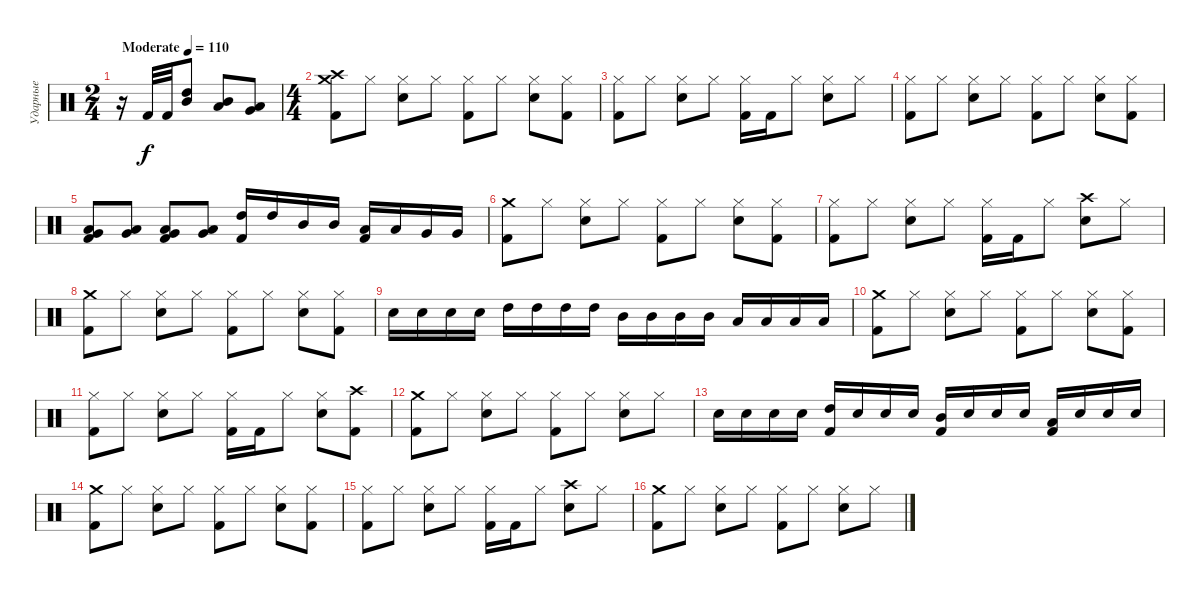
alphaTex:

\track ("Ударные" "Ударные") {instrument percussion}
\staff {score}
\articulation defaults
\ts (2 4)
\tempo (110 "Moderate")
\clef neutral
\ks c
r.16{dy f} "Kick (hit) 2".32 "Kick (hit) 2".32 ("High Tom (hit)" "Mid Tom (hit)").8 ("Mid Tom (hit)" "Low Tom (hit)").8 ("Low Tom (hit)" "Very Low Tom (hit)").8 |
\ts (4 4)
("Crash medium (hit)" "Crash high (hit)" "Kick (hit) 2").8 "Hi-Hat (closed)".8 ("Hi-Hat (closed)" "Electric Snare (hit)").8 "Hi-Hat (closed)".8 ("Hi-Hat (closed)" "Kick (hit) 2").8 "Hi-Hat (closed)".8 ("Hi-Hat (closed)" "Electric Snare (hit)").8 ("Hi-Hat (closed)" "Kick (hit) 2").8 |
("Hi-Hat (closed)" "Kick (hit) 2").8 "Hi-Hat (closed)".8 ("Hi-Hat (closed)" "Electric Snare (hit)").8 "Hi-Hat (closed)".8 ("Hi-Hat (closed)" "Kick (hit) 2").16 "Kick (hit) 2".16 "Hi-Hat (closed)".8 ("Hi-Hat (closed)" "Electric Snare (hit)").8 "Hi-Hat (closed)".8 |
("Hi-Hat (closed)" "Kick (hit) 2").8 "Hi-Hat (closed)".8 ("Hi-Hat (closed)" "Electric Snare (hit)").8 "Hi-Hat (closed)".8 ("Hi-Hat (closed)" "Kick (hit) 2").8 "Hi-Hat (closed)".8 ("Hi-Hat (closed)" "Electric Snare (hit)").8 ("Hi-Hat (closed)" "Kick (hit) 2").8 |
("Very Low Tom (hit)" "Low Floor Tom (hit)" "Kick (hit) 2").8 ("Very Low Tom (hit)" "Low Floor Tom (hit)").8 ("Very Low Tom (hit)" "Low Floor Tom (hit)" "Kick (hit) 2").8 ("Very Low Tom (hit)" "Low Floor Tom (hit)").8 ("High Tom (hit)" "Kick (hit) 2").16 "High Tom (hit)".16 "Mid Tom (hit)".16 "Mid Tom (hit)".16 ("Low Tom (hit)" "Kick (hit) 2").16 "Low Tom (hit)".16 "Very Low Tom (hit)".16 "Very Low Tom (hit)".16 |
("Crash medium (hit)" "Kick (hit) 2").8 "Hi-Hat (closed)".8 ("Hi-Hat (closed)" "Electric Snare (hit)").8 "Hi-Hat (closed)".8 ("Hi-Hat (closed)" "Kick (hit) 2").8 "Hi-Hat (closed)".8 ("Hi-Hat (closed)" "Electric Snare (hit)").8 ("Hi-Hat (closed)" "Kick (hit) 2").8 |
("Hi-Hat (closed)" "Kick (hit) 2").8 "Hi-Hat (closed)".8 ("Hi-Hat (closed)" "Electric Snare (hit)").8 "Hi-Hat (closed)".8 ("Hi-Hat (closed)" "Kick (hit) 2").16 "Kick (hit) 2".16 "Hi-Hat (closed)".8 ("Crash high (hit)" "Electric Snare (hit)").8 "Hi-Hat (closed)".8 |
("Crash medium (hit)" "Kick (hit) 2").8 "Hi-Hat (closed)".8 ("Hi-Hat (closed)" "Electric Snare (hit)").8 "Hi-Hat (closed)".8 ("Hi-Hat (closed)" "Kick (hit) 2").8 "Hi-Hat (closed)".8 ("Hi-Hat (closed)" "Electric Snare (hit)").8 ("Hi-Hat (closed)" "Kick (hit) 2").8 |
"Electric Snare (hit)".16 "Electric Snare (hit)".16 "Electric Snare (hit)".16 "Electric Snare (hit)".16 "High Tom (hit)".16 "High Tom (hit)".16 "High Tom (hit)".16 "High Tom (hit)".16 "Mid Tom (hit)".16 "Mid Tom (hit)".16 "Mid Tom (hit)".16 "Mid Tom (hit)".16 "Low Tom (hit)".16 "Low Tom (hit)".16 "Low Tom (hit)".16 "Low Tom (hit)".16 |
("Crash medium (hit)" "Kick (hit) 2").8 "Hi-Hat (closed)".8 ("Hi-Hat (closed)" "Electric Snare (hit)").8 "Hi-Hat (closed)".8 ("Hi-Hat (closed)" "Kick (hit) 2").8 "Hi-Hat (closed)".8 ("Hi-Hat (closed)" "Electric Snare (hit)").8 ("Hi-Hat (closed)" "Kick (hit) 2").8 |
("Hi-Hat (closed)" "Kick (hit) 2").8 "Hi-Hat (closed)".8 ("Hi-Hat (closed)" "Electric Snare (hit)").8 "Hi-Hat (closed)".8 ("Hi-Hat (closed)" "Kick (hit) 2").16 "Kick (hit) 2".16 "Hi-Hat (closed)".8 ("Hi-Hat (closed)" "Electric Snare (hit)").8 ("Crash high (hit)" "Kick (hit) 2").8 |
("Crash medium (hit)" "Kick (hit) 2").8 "Hi-Hat (closed)".8 ("Hi-Hat (closed)" "Electric Snare (hit)").8 "Hi-Hat (closed)".8 ("Hi-Hat (closed)" "Kick (hit) 2").8 "Hi-Hat (closed)".8 ("Hi-Hat (closed)" "Electric Snare (hit)").8 "Hi-Hat (closed)".8 |
"Electric Snare (hit)".16 "Electric Snare (hit)".16 "Electric Snare (hit)".16 "Electric Snare (hit)".16 ("High Tom (hit)" "Kick (hit) 2").16 "Electric Snare (hit)".16 "Electric Snare (hit)".16 "Electric Snare (hit)".16 ("Mid Tom (hit)" "Kick (hit) 2").16 "Electric Snare (hit)".16 "Electric Snare (hit)".16 "Electric Snare (hit)".16 ("Low Tom (hit)" "Kick (hit) 2").16 "Electric Snare (hit)".16 "Electric Snare (hit)".16 "Electric Snare (hit)".16 |
("Crash medium (hit)" "Kick (hit) 2").8 "Hi-Hat (closed)".8 ("Hi-Hat (closed)" "Electric Snare (hit)").8 "Hi-Hat (closed)".8 ("Hi-Hat (closed)" "Kick (hit) 2").8 "Hi-Hat (closed)".8 ("Hi-Hat (closed)" "Electric Snare (hit)").8 ("Hi-Hat (closed)" "Kick (hit) 2").8 |
("Hi-Hat (closed)" "Kick (hit) 2").8 "Hi-Hat (closed)".8 ("Hi-Hat (closed)" "Electric Snare (hit)").8 "Hi-Hat (closed)".8 ("Hi-Hat (closed)" "Kick (hit) 2").16 "Kick (hit) 2".16 "Hi-Hat (closed)".8 ("Crash high (hit)" "Electric Snare (hit)").8 "Hi-Hat (closed)".8 |
("Crash medium (hit)" "Kick (hit) 2").8 "Hi-Hat (closed)".8 ("Hi-Hat (closed)" "Electric Snare (hit)").8 "Hi-Hat (closed)".8 ("Hi-Hat (closed)" "Kick (hit) 2").8 "Hi-Hat (closed)".8 ("Hi-Hat (closed)" "Electric Snare (hit)").8 "Hi-Hat (closed)".8
